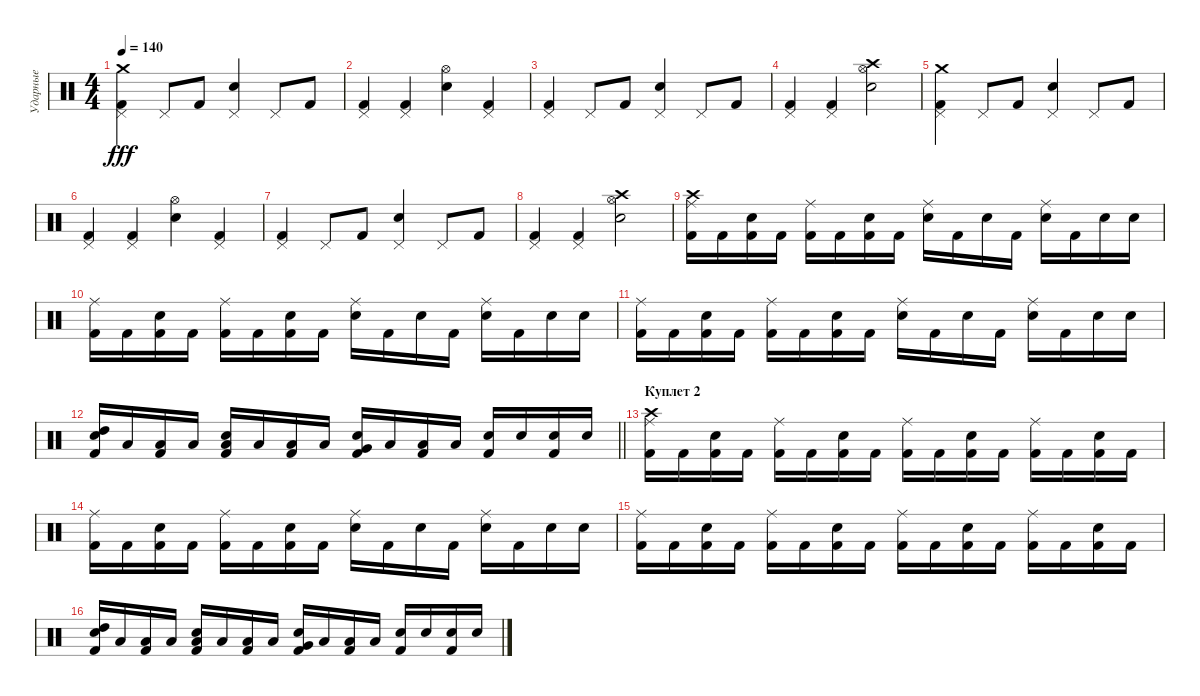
\track ("Ударные" "Ударные") {instrument percussion}
\staff {score}
\articulation defaults
\ts (4 4)
\tempo 140
\clef neutral
\ks c
("Kick (hit) 2" "Pedal Hi-Hat (hit)" "Crash medium (hit)").4{dy fff} "Pedal Hi-Hat (hit)".8 "Kick (hit) 2".8 ("Snare (hit) 2" "Pedal Hi-Hat (hit)").4 "Pedal Hi-Hat (hit)".8 "Kick (hit) 2".8 |
("Kick (hit) 2" "Pedal Hi-Hat (hit)").4 ("Kick (hit) 2" "Pedal Hi-Hat (hit)").4 ("Snare (hit) 2" "Hi-Hat (open)").4 ("Kick (hit) 2" "Pedal Hi-Hat (hit)").4 |
("Kick (hit) 2" "Pedal Hi-Hat (hit)").4 "Pedal Hi-Hat (hit)".8 "Kick (hit) 2".8 ("Snare (hit) 2" "Pedal Hi-Hat (hit)").4 "Pedal Hi-Hat (hit)".8 "Kick (hit) 2".8 |
("Kick (hit) 2" "Pedal Hi-Hat (hit)").4 ("Kick (hit) 2" "Pedal Hi-Hat (hit)").4 ("Snare (hit) 2" "Hi-Hat (open)" "Crash high (hit)").2 |
("Kick (hit) 2" "Pedal Hi-Hat (hit)" "Crash medium (hit)").4 "Pedal Hi-Hat (hit)".8 "Kick (hit) 2".8 ("Snare (hit) 2" "Pedal Hi-Hat (hit)").4 "Pedal Hi-Hat (hit)".8 "Kick (hit) 2".8 |
("Kick (hit) 2" "Pedal Hi-Hat (hit)").4 ("Kick (hit) 2" "Pedal Hi-Hat (hit)").4 ("Snare (hit) 2" "Hi-Hat (open)").4 ("Kick (hit) 2" "Pedal Hi-Hat (hit)").4 |
("Kick (hit) 2" "Pedal Hi-Hat (hit)").4 "Pedal Hi-Hat (hit)".8 "Kick (hit) 2".8 ("Snare (hit) 2" "Pedal Hi-Hat (hit)").4 "Pedal Hi-Hat (hit)".8 "Kick (hit) 2".8 |
("Kick (hit) 2" "Pedal Hi-Hat (hit)").4 ("Kick (hit) 2" "Pedal Hi-Hat (hit)").4 ("Snare (hit) 2" "Hi-Hat (open)" "Crash high (hit)").2 |
("Kick (hit) 2" "Ride (middle)" "Crash high (hit)").16 "Kick (hit) 2".16 ("Kick (hit) 2" "Snare (hit) 2").16 "Kick (hit) 2".16 ("Kick (hit) 2" "Ride (middle)").16 "Kick (hit) 2".16 ("Kick (hit) 2" "Snare (hit) 2").16 "Kick (hit) 2".16 ("Snare (hit) 2" "Ride (middle)").16 "Kick (hit) 2".16 "Snare (hit) 2".16 "Kick (hit) 2".16 ("Snare (hit) 2" "Ride (middle)").16 "Kick (hit) 2".16 "Snare (hit) 2".16 "Snare (hit) 2".16 |
("Kick (hit) 2" "Ride (middle)").16 "Kick (hit) 2".16 ("Kick (hit) 2" "Snare (hit) 2").16 "Kick (hit) 2".16 ("Kick (hit) 2" "Ride (middle)").16 "Kick (hit) 2".16 ("Kick (hit) 2" "Snare (hit) 2").16 "Kick (hit) 2".16 ("Snare (hit) 2" "Ride (middle)").16 "Kick (hit) 2".16 "Snare (hit) 2".16 "Kick (hit) 2".16 ("Snare (hit) 2" "Ride (middle)").16 "Kick (hit) 2".16 "Snare (hit) 2".16 "Snare (hit) 2".16 |
("Kick (hit) 2" "Ride (middle)").16 "Kick (hit) 2".16 ("Kick (hit) 2" "Snare (hit) 2").16 "Kick (hit) 2".16 ("Kick (hit) 2" "Ride (middle)").16 "Kick (hit) 2".16 ("Kick (hit) 2" "Snare (hit) 2").16 "Kick (hit) 2".16 ("Snare (hit) 2" "Ride (middle)").16 "Kick (hit) 2".16 "Snare (hit) 2".16 "Kick (hit) 2".16 ("Snare (hit) 2" "Ride (middle)").16 "Kick (hit) 2".16 "Snare (hit) 2".16 "Snare (hit) 2".16 |
\barLineRight lightlight
("High Tom (hit)" "Snare (hit) 2" "Kick (hit) 2").16 "Low Floor Tom (hit)".16 ("Low Floor Tom (hit)" "Kick (hit) 2").16 "Low Floor Tom (hit)".16 ("Low Tom (hit)" "Snare (hit) 2" "Kick (hit) 2").16 "Low Floor Tom (hit)".16 ("Low Floor Tom (hit)" "Kick (hit) 2").16 "Low Floor Tom (hit)".16 ("Very Low Tom (hit)" "Snare (hit) 2" "Kick (hit) 2").16 "Low Floor Tom (hit)".16 ("Low Floor Tom (hit)" "Kick (hit) 2").16 "Low Floor Tom (hit)".16 ("Snare (hit) 2" "Kick (hit) 2").16 "Snare (hit) 2".16 ("Snare (hit) 2" "Kick (hit) 2").16 "Snare (hit) 2".16 |
\section ("" "Куплет 2")
("Kick (hit) 2" "Ride (middle)" "Crash high (hit)").16 "Kick (hit) 2".16 ("Kick (hit) 2" "Snare (hit) 2").16 "Kick (hit) 2".16 ("Kick (hit) 2" "Ride (middle)").16 "Kick (hit) 2".16 ("Kick (hit) 2" "Snare (hit) 2").16 "Kick (hit) 2".16 ("Kick (hit) 2" "Ride (middle)").16 "Kick (hit) 2".16 ("Kick (hit) 2" "Snare (hit) 2").16 "Kick (hit) 2".16 ("Kick (hit) 2" "Ride (middle)").16 "Kick (hit) 2".16 ("Kick (hit) 2" "Snare (hit) 2").16 "Kick (hit) 2".16 |
("Kick (hit) 2" "Ride (middle)").16 "Kick (hit) 2".16 ("Kick (hit) 2" "Snare (hit) 2").16 "Kick (hit) 2".16 ("Kick (hit) 2" "Ride (middle)").16 "Kick (hit) 2".16 ("Kick (hit) 2" "Snare (hit) 2").16 "Kick (hit) 2".16 ("Snare (hit) 2" "Ride (middle)").16 "Kick (hit) 2".16 "Snare (hit) 2".16 "Kick (hit) 2".16 ("Snare (hit) 2" "Ride (middle)").16 "Kick (hit) 2".16 "Snare (hit) 2".16 "Snare (hit) 2".16 |
("Kick (hit) 2" "Ride (middle)").16 "Kick (hit) 2".16 ("Kick (hit) 2" "Snare (hit) 2").16 "Kick (hit) 2".16 ("Kick (hit) 2" "Ride (middle)").16 "Kick (hit) 2".16 ("Kick (hit) 2" "Snare (hit) 2").16 "Kick (hit) 2".16 ("Kick (hit) 2" "Ride (middle)").16 "Kick (hit) 2".16 ("Kick (hit) 2" "Snare (hit) 2").16 "Kick (hit) 2".16 ("Kick (hit) 2" "Ride (middle)").16 "Kick (hit) 2".16 ("Kick (hit) 2" "Snare (hit) 2").16 "Kick (hit) 2".16 |
("High Tom (hit)" "Snare (hit) 2" "Kick (hit) 2").16 "Low Floor Tom (hit)".16 ("Low Floor Tom (hit)" "Kick (hit) 2").16 "Low Floor Tom (hit)".16 ("Low Tom (hit)" "Snare (hit) 2" "Kick (hit) 2").16 "Low Floor Tom (hit)".16 ("Low Floor Tom (hit)" "Kick (hit) 2").16 "Low Floor Tom (hit)".16 ("Very Low Tom (hit)" "Snare (hit) 2" "Kick (hit) 2").16 "Low Floor Tom (hit)".16 ("Low Floor Tom (hit)" "Kick (hit) 2").16 "Low Floor Tom (hit)".16 ("Snare (hit) 2" "Kick (hit) 2").16 "Snare (hit) 2".16 ("Snare (hit) 2" "Kick (hit) 2").16 "Snare (hit) 2".16
